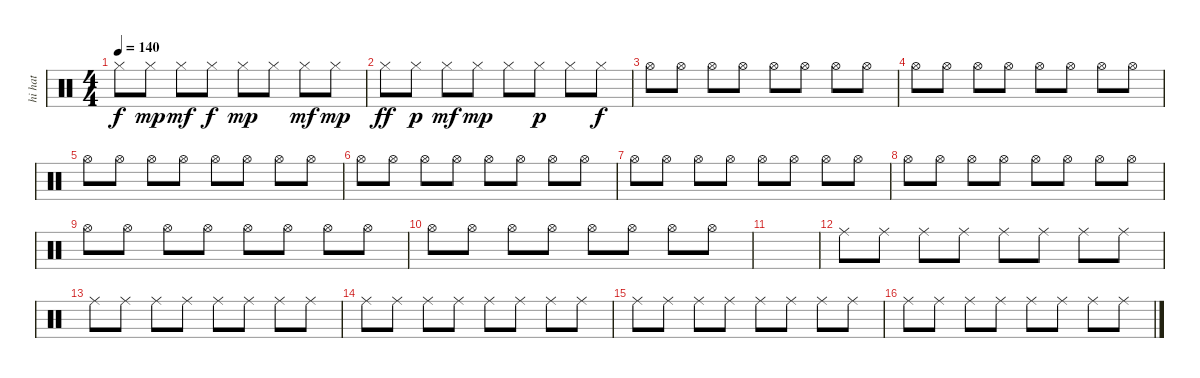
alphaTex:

\track ("hi hat" "hi hat") {instrument percussion}
\staff {score}
\articulation defaults
\ts (4 4)
\tempo 140
\clef neutral
\ks c "Hi-Hat (closed)".8{dy f} "Hi-Hat (closed)".8{dy mp} "Hi-Hat (closed)".8{dy mf} "Hi-Hat (closed)".8{dy f} "Hi-Hat (closed)".8{dy mp} "Hi-Hat (closed)".8 "Hi-Hat (closed)".8{dy mf} "Hi-Hat (closed)".8{dy mp}
|
"Hi-Hat (closed)".8{dy ff} "Hi-Hat (closed)".8{dy p} "Hi-Hat (closed)".8{dy mf} "Hi-Hat (closed)".8{dy mp} "Hi-Hat (closed)".8 "Hi-Hat (closed)".8{dy p} "Hi-Hat (closed)".8 "Hi-Hat (closed)".8{dy f} |
"Hi-Hat (open)".8 "Hi-Hat (open)".8 "Hi-Hat (open)".8 "Hi-Hat (open)".8 "Hi-Hat (open)".8 "Hi-Hat (open)".8 "Hi-Hat (open)".8 "Hi-Hat (open)".8 |
"Hi-Hat (open)".8 "Hi-Hat (open)".8 "Hi-Hat (open)".8 "Hi-Hat (open)".8 "Hi-Hat (open)".8 "Hi-Hat (open)".8 "Hi-Hat (open)".8 "Hi-Hat (open)".8 |
"Hi-Hat (open)".8 "Hi-Hat (open)".8 "Hi-Hat (open)".8 "Hi-Hat (open)".8 "Hi-Hat (open)".8 "Hi-Hat (open)".8 "Hi-Hat (open)".8 "Hi-Hat (open)".8 |
"Hi-Hat (open)".8 "Hi-Hat (open)".8 "Hi-Hat (open)".8 "Hi-Hat (open)".8 "Hi-Hat (open)".8 "Hi-Hat (open)".8 "Hi-Hat (open)".8 "Hi-Hat (open)".8 |
"Hi-Hat (open)".8 "Hi-Hat (open)".8 "Hi-Hat (open)".8 "Hi-Hat (open)".8 "Hi-Hat (open)".8 "Hi-Hat (open)".8 "Hi-Hat (open)".8 "Hi-Hat (open)".8 |
"Hi-Hat (open)".8 "Hi-Hat (open)".8 "Hi-Hat (open)".8 "Hi-Hat (open)".8 "Hi-Hat (open)".8 "Hi-Hat (open)".8 "Hi-Hat (open)".8 "Hi-Hat (open)".8 |
"Hi-Hat (open)".8 "Hi-Hat (open)".8 "Hi-Hat (open)".8 "Hi-Hat (open)".8 "Hi-Hat (open)".8 "Hi-Hat (open)".8 "Hi-Hat (open)".8 "Hi-Hat (open)".8 |
"Hi-Hat (open)".8 "Hi-Hat (open)".8 "Hi-Hat (open)".8 "Hi-Hat (open)".8 "Hi-Hat (open)".8 "Hi-Hat (open)".8 "Hi-Hat (open)".8 "Hi-Hat (open)".8 |
|
"Ride (middle)".8 "Ride (middle)".8 "Ride (middle)".8 "Ride (middle)".8 "Ride (middle)".8 "Ride (middle)".8 "Ride (middle)".8 "Ride (middle)".8 |
"Ride (middle)".8 "Ride (middle)".8 "Ride (middle)".8 "Ride (middle)".8 "Ride (middle)".8 "Ride (middle)".8 "Ride (middle)".8 "Ride (middle)".8 |
"Ride (middle)".8 "Ride (middle)".8 "Ride (middle)".8 "Ride (middle)".8 "Ride (middle)".8 "Ride (middle)".8 "Ride (middle)".8 "Ride (middle)".8 |
"Ride (middle)".8 "Ride (middle)".8 "Ride (middle)".8 "Ride (middle)".8 "Ride (middle)".8 "Ride (middle)".8 "Ride (middle)".8 "Ride (middle)".8 |
"Ride (middle)".8 "Ride (middle)".8 "Ride (middle)".8 "Ride (middle)".8 "Ride (middle)".8 "Ride (middle)".8 "Ride (middle)".8 "Ride (middle)".8
